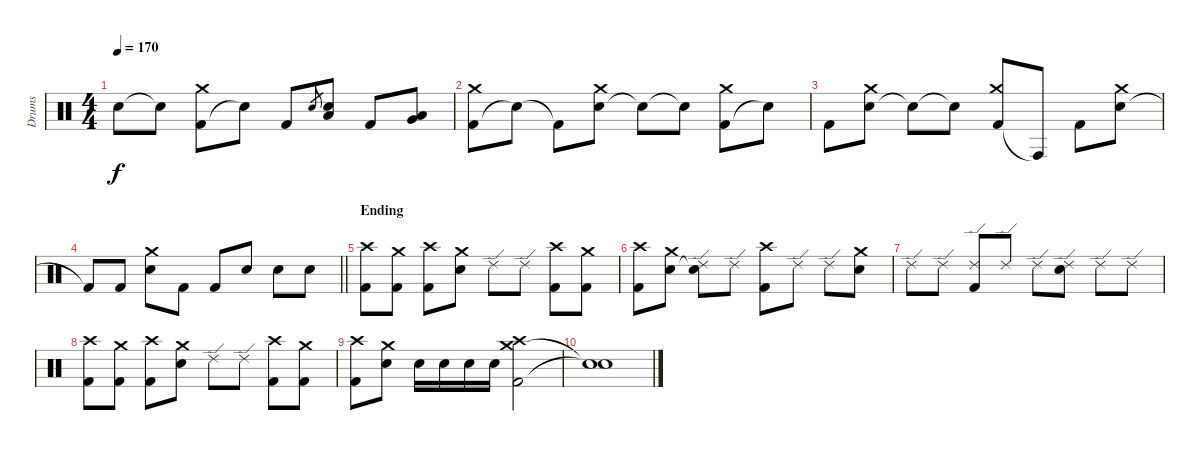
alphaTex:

\track ("Drums" "Drums") {instrument percussion}
\staff {score}
\articulation defaults
\ts (4 4)
\tempo 170
\clef neutral
\ks c "Snare (hit)"{t}.8{dy f} "Snare (hit)"{t}.8
("Kick (hit) 2" "Crash medium (hit)").8 "Electric Snare (hit)"{t}.8 "Kick (hit) 2".8 "Electric Snare (hit)".8{gr} ("Electric Snare (hit)" "Low Tom (hit)").8 "Kick (hit) 2".8 ("Very Low Tom (hit)" "Low Floor Tom (hit)").8 |
("Kick (hit) 2" "Crash medium (hit)").8 "Snare (hit)"{t}.8 "Kick (hit) 2"{t}.8 ("Electric Snare (hit)" "Crash medium (hit)").8 "Snare (hit)"{t}.8 "Snare (hit)"{t}.8 ("Kick (hit) 2" "Crash medium (hit)").8 "Snare (hit)"{t}.8 |
"Kick (hit) 2".8 ("Electric Snare (hit)" "Crash medium (hit)").8 "Snare (hit)"{t}.8 "Snare (hit)"{t}.8 ("Kick (hit) 2" "Crash medium (hit)").8 "Conga high (hit)"{t}.8 "Kick (hit) 2".8 ("Electric Snare (hit)" "Crash medium (hit)").8 |
\barLineRight lightlight "Kick (hit) 2"{t}.8 "Kick (hit) 2".8
("Electric Snare (hit)" "Crash medium (hit)").8 "Kick (hit) 2".8 "Kick (hit) 2".8 "Electric Snare (hit)".8 "Electric Snare (hit)".8 "Electric Snare (hit)".8 |
\section ("" "Ending")
("Kick (hit) 2" "Crash high (hit)").8 ("Kick (hit) 2" "Crash medium (hit)").8 ("Kick (hit) 2" "Crash high (hit)").8 ("Electric Snare (hit)" "Crash medium (hit)").8 "Ride (edge) 2".8 "Ride (edge) 2".8 ("Kick (hit) 2" "Crash high (hit)").8 ("Kick (hit) 2" "Crash medium (hit)").8 |
("Kick (hit) 2" "Crash high (hit)").8 ("Electric Snare (hit)" "Crash medium (hit)").8 ("Snare (hit)"{t} "Ride (edge) 2").8 "Ride (edge) 2".8 ("Kick (hit) 2" "Crash high (hit)").8 "Ride (edge) 2".8 "Ride (edge) 2".8 ("Electric Snare (hit)" "Crash medium (hit)").8 |
"Ride (edge) 2".8 "Ride (edge) 2".8 ("Kick (hit) 2" "Ride (edge) 2").8 "Ride (edge) 2".8 "Ride (edge) 2".8 ("Electric Snare (hit)" "Ride (edge) 2").8 "Ride (edge) 2".8 "Ride (edge) 2".8 |
("Kick (hit) 2" "Crash high (hit)").8 ("Kick (hit) 2" "Crash medium (hit)").8 ("Kick (hit) 2" "Crash high (hit)").8 ("Electric Snare (hit)" "Crash medium (hit)").8 "Ride (edge) 2".8 "Ride (edge) 2".8 ("Kick (hit) 2" "Crash high (hit)").8 ("Kick (hit) 2" "Crash medium (hit)").8 |
("Kick (hit) 2" "Crash high (hit)").8 ("Electric Snare (hit)" "Crash medium (hit)").8 "Electric Snare (hit)".16 "Electric Snare (hit)".16 "Electric Snare (hit)".16 "Electric Snare (hit)".16 ("Kick (hit) 2" "Crash medium (hit)" "Crash high (hit)").2 |
("Snare (hit)"{t} "Snare (hit)"{t}).1
